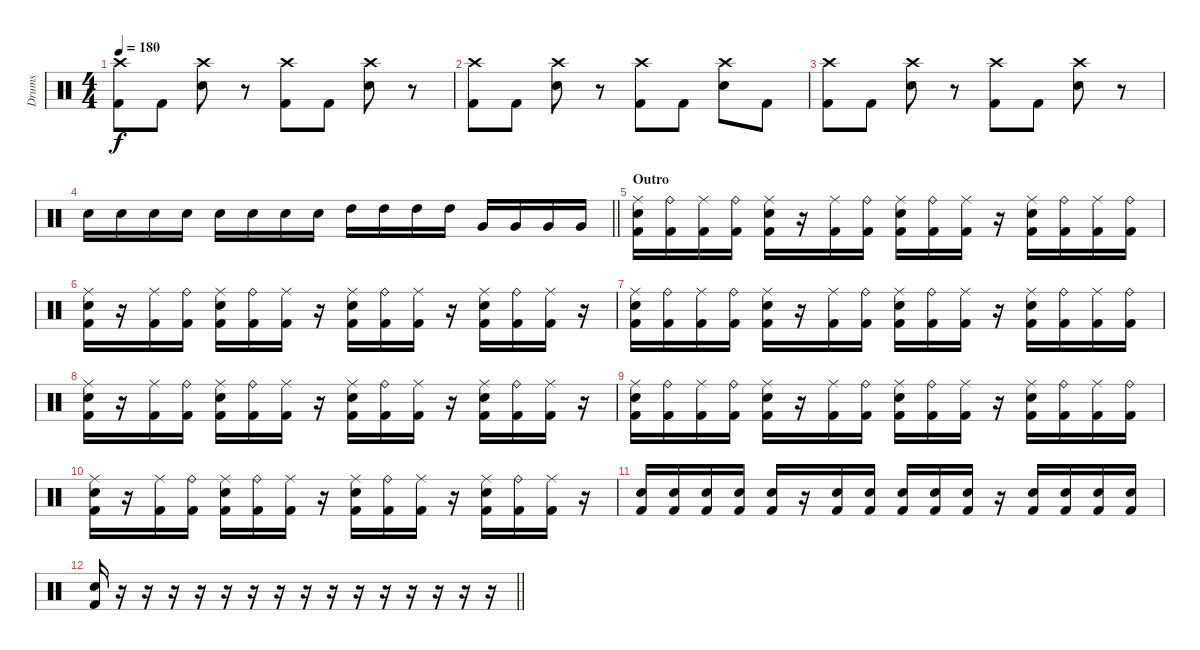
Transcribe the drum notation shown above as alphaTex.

\track ("Drums" "Drums") {instrument percussion}
\staff {score}
\articulation defaults
\ts (4 4)
\tempo 180
\clef neutral
\ks c
("Crash high (hit)" "Kick (hit) 2").8{dy f} "Kick (hit) 2".8 ("Crash high (hit)" "Electric Snare (hit)").8 r.8 ("Crash high (hit)" "Kick (hit) 2").8 "Kick (hit) 2".8 ("Crash high (hit)" "Electric Snare (hit)").8 r.8 |
("Crash high (hit)" "Kick (hit) 2").8 "Kick (hit) 2".8 ("Crash high (hit)" "Electric Snare (hit)").8 r.8 ("Crash high (hit)" "Kick (hit) 2").8 "Kick (hit) 2".8 ("Crash high (hit)" "Electric Snare (hit)").8 "Kick (hit) 2".8 |
("Crash high (hit)" "Kick (hit) 2").8 "Kick (hit) 2".8 ("Crash high (hit)" "Electric Snare (hit)").8 r.8 ("Crash high (hit)" "Kick (hit) 2").8 "Kick (hit) 2".8 ("Crash high (hit)" "Electric Snare (hit)").8 r.8 |
\barLineRight lightlight "Electric Snare (hit)".16 "Electric Snare (hit)".16 "Electric Snare (hit)".16 "Electric Snare (hit)".16 "Electric Snare (hit)".16 "Electric Snare (hit)".16 "Electric Snare (hit)".16 "Electric Snare (hit)".16 "High Tom (hit)".16 "High Tom (hit)".16 "High Tom (hit)".16 "High Tom (hit)".16 "Very Low Tom (hit)".16 "Very Low Tom (hit)".16 "Very Low Tom (hit)".16 "Very Low Tom (hit)".16
|
\section ("" "Outro")
("Ride (middle)" "Electric Snare (hit)" "Kick (hit) 2").16 ("Ride (bell)" "Kick (hit) 2").16 ("Ride (middle)" "Kick (hit) 2").16 ("Ride (bell)" "Kick (hit) 2").16 ("Ride (middle)" "Electric Snare (hit)" "Kick (hit) 2").16 r.16 ("Ride (middle)" "Kick (hit) 2").16 ("Ride (bell)" "Kick (hit) 2").16 ("Ride (middle)" "Electric Snare (hit)" "Kick (hit) 2").16 ("Ride (bell)" "Kick (hit) 2").16 ("Ride (middle)" "Kick (hit) 2").16 r.16 ("Ride (middle)" "Electric Snare (hit)" "Kick (hit) 2").16 ("Ride (bell)" "Kick (hit) 2").16 ("Ride (middle)" "Kick (hit) 2").16 ("Ride (bell)" "Kick (hit) 2").16 |
("Ride (middle)" "Electric Snare (hit)" "Kick (hit) 2").16 r.16 ("Ride (middle)" "Kick (hit) 2").16 ("Ride (bell)" "Kick (hit) 2").16 ("Ride (middle)" "Electric Snare (hit)" "Kick (hit) 2").16 ("Ride (bell)" "Kick (hit) 2").16 ("Ride (middle)" "Kick (hit) 2").16 r.16 ("Ride (middle)" "Electric Snare (hit)" "Kick (hit) 2").16 ("Ride (bell)" "Kick (hit) 2").16 ("Ride (middle)" "Kick (hit) 2").16 r.16 ("Ride (middle)" "Electric Snare (hit)" "Kick (hit) 2").16 ("Ride (bell)" "Kick (hit) 2").16 ("Ride (middle)" "Kick (hit) 2").16 r.16 |
("Ride (middle)" "Electric Snare (hit)" "Kick (hit) 2").16 ("Ride (bell)" "Kick (hit) 2").16 ("Ride (middle)" "Kick (hit) 2").16 ("Ride (bell)" "Kick (hit) 2").16 ("Ride (middle)" "Electric Snare (hit)" "Kick (hit) 2").16 r.16 ("Ride (middle)" "Kick (hit) 2").16 ("Ride (bell)" "Kick (hit) 2").16 ("Ride (middle)" "Electric Snare (hit)" "Kick (hit) 2").16 ("Ride (bell)" "Kick (hit) 2").16 ("Ride (middle)" "Kick (hit) 2").16 r.16 ("Ride (middle)" "Electric Snare (hit)" "Kick (hit) 2").16 ("Ride (bell)" "Kick (hit) 2").16 ("Ride (middle)" "Kick (hit) 2").16 ("Ride (bell)" "Kick (hit) 2").16 |
("Ride (middle)" "Electric Snare (hit)" "Kick (hit) 2").16 r.16 ("Ride (middle)" "Kick (hit) 2").16 ("Ride (bell)" "Kick (hit) 2").16 ("Ride (middle)" "Electric Snare (hit)" "Kick (hit) 2").16 ("Ride (bell)" "Kick (hit) 2").16 ("Ride (middle)" "Kick (hit) 2").16 r.16 ("Ride (middle)" "Electric Snare (hit)" "Kick (hit) 2").16 ("Ride (bell)" "Kick (hit) 2").16 ("Ride (middle)" "Kick (hit) 2").16 r.16 ("Ride (middle)" "Electric Snare (hit)" "Kick (hit) 2").16 ("Ride (bell)" "Kick (hit) 2").16 ("Ride (middle)" "Kick (hit) 2").16 r.16 |
("Ride (middle)" "Electric Snare (hit)" "Kick (hit) 2").16 ("Ride (bell)" "Kick (hit) 2").16 ("Ride (middle)" "Kick (hit) 2").16 ("Ride (bell)" "Kick (hit) 2").16 ("Ride (middle)" "Electric Snare (hit)" "Kick (hit) 2").16 r.16 ("Ride (middle)" "Kick (hit) 2").16 ("Ride (bell)" "Kick (hit) 2").16 ("Ride (middle)" "Electric Snare (hit)" "Kick (hit) 2").16 ("Ride (bell)" "Kick (hit) 2").16 ("Ride (middle)" "Kick (hit) 2").16 r.16 ("Ride (middle)" "Electric Snare (hit)" "Kick (hit) 2").16 ("Ride (bell)" "Kick (hit) 2").16 ("Ride (middle)" "Kick (hit) 2").16 ("Ride (bell)" "Kick (hit) 2").16 |
("Ride (middle)" "Electric Snare (hit)" "Kick (hit) 2").16 r.16 ("Ride (middle)" "Kick (hit) 2").16 ("Ride (bell)" "Kick (hit) 2").16 ("Ride (middle)" "Electric Snare (hit)" "Kick (hit) 2").16 ("Ride (bell)" "Kick (hit) 2").16 ("Ride (middle)" "Kick (hit) 2").16 r.16 ("Ride (middle)" "Electric Snare (hit)" "Kick (hit) 2").16 ("Ride (bell)" "Kick (hit) 2").16 ("Ride (middle)" "Kick (hit) 2").16 r.16 ("Ride (middle)" "Electric Snare (hit)" "Kick (hit) 2").16 ("Ride (bell)" "Kick (hit) 2").16 ("Ride (middle)" "Kick (hit) 2").16 r.16 |
("Electric Snare (hit)" "Kick (hit) 2").16 ("Electric Snare (hit)" "Kick (hit) 2").16 ("Electric Snare (hit)" "Kick (hit) 2").16 ("Electric Snare (hit)" "Kick (hit) 2").16 ("Electric Snare (hit)" "Kick (hit) 2").16 r.16 ("Electric Snare (hit)" "Kick (hit) 2").16 ("Electric Snare (hit)" "Kick (hit) 2").16 ("Electric Snare (hit)" "Kick (hit) 2").16 ("Electric Snare (hit)" "Kick (hit) 2").16 ("Electric Snare (hit)" "Kick (hit) 2").16 r.16 ("Electric Snare (hit)" "Kick (hit) 2").16 ("Electric Snare (hit)" "Kick (hit) 2").16 ("Electric Snare (hit)" "Kick (hit) 2").16 ("Electric Snare (hit)" "Kick (hit) 2").16 |
\barLineRight lightlight
("Electric Snare (hit)" "Kick (hit) 2").16 r.16 r.16 r.16 r.16 r.16 r.16 r.16 r.16 r.16 r.16 r.16 r.16 r.16 r.16 r.16
